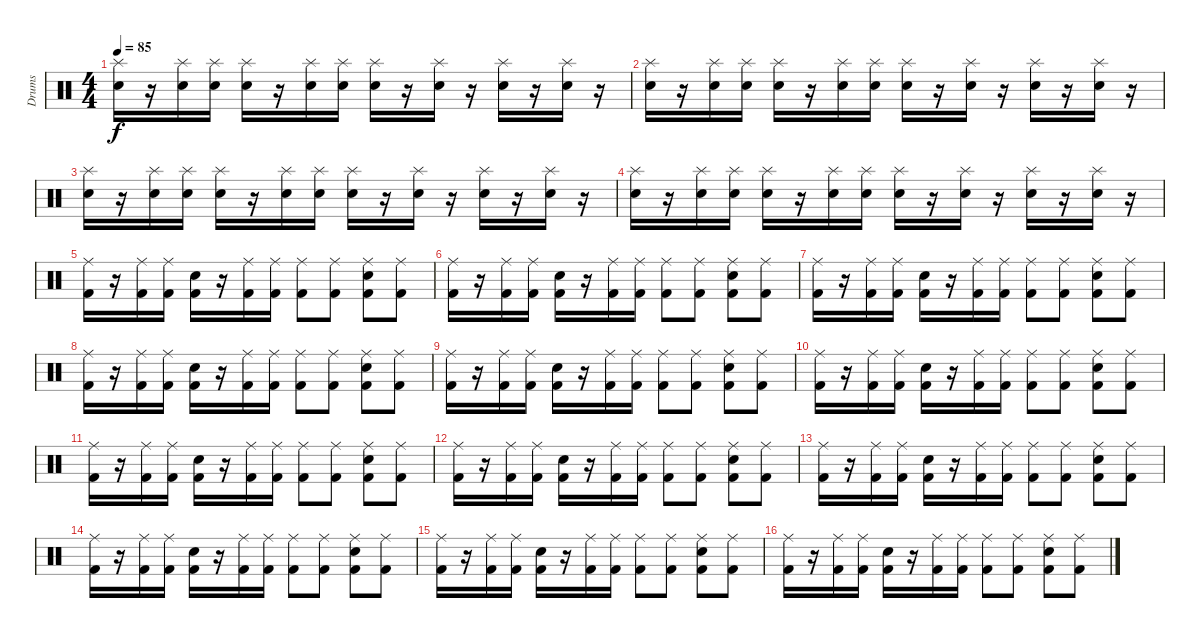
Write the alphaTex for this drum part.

\track ("Drums" "Drums") {instrument percussion}
\staff {score}
\articulation defaults
\ts (4 4)
\tempo 85
\clef neutral
\ks c
("Splash (hit)" "Snare (hit) 2").16{dy f volume 0} r.16{volume 11} ("Splash (hit)" "Snare (hit) 2").16 ("Splash (hit)" "Snare (hit) 2").16 ("Splash (hit)" "Snare (hit) 2").16 r.16 ("Splash (hit)" "Snare (hit) 2").16 ("Splash (hit)" "Snare (hit) 2").16 ("Splash (hit)" "Snare (hit) 2").16 r.16 ("Splash (hit)" "Snare (hit) 2").16 r.16 ("Splash (hit)" "Snare (hit) 2").16 r.16 ("Splash (hit)" "Snare (hit) 2").16 r.16 |
("Splash (hit)" "Snare (hit) 2").16 r.16 ("Splash (hit)" "Snare (hit) 2").16 ("Splash (hit)" "Snare (hit) 2").16 ("Splash (hit)" "Snare (hit) 2").16 r.16 ("Splash (hit)" "Snare (hit) 2").16 ("Splash (hit)" "Snare (hit) 2").16 ("Splash (hit)" "Snare (hit) 2").16 r.16 ("Splash (hit)" "Snare (hit) 2").16 r.16 ("Splash (hit)" "Snare (hit) 2").16 r.16 ("Splash (hit)" "Snare (hit) 2").16 r.16 |
("Splash (hit)" "Snare (hit) 2").16 r.16 ("Splash (hit)" "Snare (hit) 2").16 ("Splash (hit)" "Snare (hit) 2").16 ("Splash (hit)" "Snare (hit) 2").16 r.16 ("Splash (hit)" "Snare (hit) 2").16 ("Splash (hit)" "Snare (hit) 2").16 ("Splash (hit)" "Snare (hit) 2").16 r.16 ("Splash (hit)" "Snare (hit) 2").16 r.16 ("Splash (hit)" "Snare (hit) 2").16 r.16 ("Splash (hit)" "Snare (hit) 2").16 r.16 |
("Splash (hit)" "Snare (hit) 2").16 r.16 ("Splash (hit)" "Snare (hit) 2").16 ("Splash (hit)" "Snare (hit) 2").16 ("Splash (hit)" "Snare (hit) 2").16 r.16 ("Splash (hit)" "Snare (hit) 2").16 ("Splash (hit)" "Snare (hit) 2").16 ("Splash (hit)" "Snare (hit) 2").16 r.16 ("Splash (hit)" "Snare (hit) 2").16 r.16 ("Splash (hit)" "Snare (hit) 2").16 r.16 ("Splash (hit)" "Snare (hit) 2").16 r.16 |
("Ride (middle)" "Kick (hit) 2").16 r.16 ("Ride (middle)" "Kick (hit) 2").16 ("Ride (middle)" "Kick (hit) 2").16 ("Snare (hit) 2" "Kick (hit) 2").16 r.16 ("Ride (middle)" "Kick (hit) 2").16 ("Ride (middle)" "Kick (hit) 2").16 ("Ride (middle)" "Kick (hit) 2").8 ("Ride (middle)" "Kick (hit) 2").8 ("Ride (middle)" "Snare (hit) 2" "Kick (hit) 2").8 ("Ride (middle)" "Kick (hit) 2").8 |
("Ride (middle)" "Kick (hit) 2").16 r.16 ("Ride (middle)" "Kick (hit) 2").16 ("Ride (middle)" "Kick (hit) 2").16 ("Snare (hit) 2" "Kick (hit) 2").16 r.16 ("Ride (middle)" "Kick (hit) 2").16 ("Ride (middle)" "Kick (hit) 2").16 ("Ride (middle)" "Kick (hit) 2").8 ("Ride (middle)" "Kick (hit) 2").8 ("Ride (middle)" "Snare (hit) 2" "Kick (hit) 2").8 ("Ride (middle)" "Kick (hit) 2").8 |
("Ride (middle)" "Kick (hit) 2").16 r.16 ("Ride (middle)" "Kick (hit) 2").16 ("Ride (middle)" "Kick (hit) 2").16 ("Snare (hit) 2" "Kick (hit) 2").16 r.16 ("Ride (middle)" "Kick (hit) 2").16 ("Ride (middle)" "Kick (hit) 2").16 ("Ride (middle)" "Kick (hit) 2").8 ("Ride (middle)" "Kick (hit) 2").8 ("Ride (middle)" "Snare (hit) 2" "Kick (hit) 2").8 ("Ride (middle)" "Kick (hit) 2").8 |
("Ride (middle)" "Kick (hit) 2").16 r.16 ("Ride (middle)" "Kick (hit) 2").16 ("Ride (middle)" "Kick (hit) 2").16 ("Snare (hit) 2" "Kick (hit) 2").16 r.16 ("Ride (middle)" "Kick (hit) 2").16 ("Ride (middle)" "Kick (hit) 2").16 ("Ride (middle)" "Kick (hit) 2").8 ("Ride (middle)" "Kick (hit) 2").8 ("Ride (middle)" "Snare (hit) 2" "Kick (hit) 2").8 ("Ride (middle)" "Kick (hit) 2").8 |
("Ride (middle)" "Kick (hit) 2").16 r.16 ("Ride (middle)" "Kick (hit) 2").16 ("Ride (middle)" "Kick (hit) 2").16 ("Snare (hit) 2" "Kick (hit) 2").16 r.16 ("Ride (middle)" "Kick (hit) 2").16 ("Ride (middle)" "Kick (hit) 2").16 ("Ride (middle)" "Kick (hit) 2").8 ("Ride (middle)" "Kick (hit) 2").8 ("Ride (middle)" "Snare (hit) 2" "Kick (hit) 2").8 ("Ride (middle)" "Kick (hit) 2").8 |
("Ride (middle)" "Kick (hit) 2").16 r.16 ("Ride (middle)" "Kick (hit) 2").16 ("Ride (middle)" "Kick (hit) 2").16 ("Snare (hit) 2" "Kick (hit) 2").16 r.16 ("Ride (middle)" "Kick (hit) 2").16 ("Ride (middle)" "Kick (hit) 2").16 ("Ride (middle)" "Kick (hit) 2").8 ("Ride (middle)" "Kick (hit) 2").8 ("Ride (middle)" "Snare (hit) 2" "Kick (hit) 2").8 ("Ride (middle)" "Kick (hit) 2").8 |
("Ride (middle)" "Kick (hit) 2").16 r.16 ("Ride (middle)" "Kick (hit) 2").16 ("Ride (middle)" "Kick (hit) 2").16 ("Snare (hit) 2" "Kick (hit) 2").16 r.16 ("Ride (middle)" "Kick (hit) 2").16 ("Ride (middle)" "Kick (hit) 2").16 ("Ride (middle)" "Kick (hit) 2").8 ("Ride (middle)" "Kick (hit) 2").8 ("Ride (middle)" "Snare (hit) 2" "Kick (hit) 2").8 ("Ride (middle)" "Kick (hit) 2").8 |
("Ride (middle)" "Kick (hit) 2").16 r.16 ("Ride (middle)" "Kick (hit) 2").16 ("Ride (middle)" "Kick (hit) 2").16 ("Snare (hit) 2" "Kick (hit) 2").16 r.16 ("Ride (middle)" "Kick (hit) 2").16 ("Ride (middle)" "Kick (hit) 2").16 ("Ride (middle)" "Kick (hit) 2").8 ("Ride (middle)" "Kick (hit) 2").8 ("Ride (middle)" "Snare (hit) 2" "Kick (hit) 2").8 ("Ride (middle)" "Kick (hit) 2").8 |
("Ride (middle)" "Kick (hit) 2").16 r.16 ("Ride (middle)" "Kick (hit) 2").16 ("Ride (middle)" "Kick (hit) 2").16 ("Snare (hit) 2" "Kick (hit) 2").16 r.16 ("Ride (middle)" "Kick (hit) 2").16 ("Ride (middle)" "Kick (hit) 2").16 ("Ride (middle)" "Kick (hit) 2").8 ("Ride (middle)" "Kick (hit) 2").8 ("Ride (middle)" "Snare (hit) 2" "Kick (hit) 2").8 ("Ride (middle)" "Kick (hit) 2").8 |
("Ride (middle)" "Kick (hit) 2").16 r.16 ("Ride (middle)" "Kick (hit) 2").16 ("Ride (middle)" "Kick (hit) 2").16 ("Snare (hit) 2" "Kick (hit) 2").16 r.16 ("Ride (middle)" "Kick (hit) 2").16 ("Ride (middle)" "Kick (hit) 2").16 ("Ride (middle)" "Kick (hit) 2").8 ("Ride (middle)" "Kick (hit) 2").8 ("Ride (middle)" "Snare (hit) 2" "Kick (hit) 2").8 ("Ride (middle)" "Kick (hit) 2").8 |
("Ride (middle)" "Kick (hit) 2").16 r.16 ("Ride (middle)" "Kick (hit) 2").16 ("Ride (middle)" "Kick (hit) 2").16 ("Snare (hit) 2" "Kick (hit) 2").16 r.16 ("Ride (middle)" "Kick (hit) 2").16 ("Ride (middle)" "Kick (hit) 2").16 ("Ride (middle)" "Kick (hit) 2").8 ("Ride (middle)" "Kick (hit) 2").8 ("Ride (middle)" "Snare (hit) 2" "Kick (hit) 2").8 ("Ride (middle)" "Kick (hit) 2").8 |
("Ride (middle)" "Kick (hit) 2").16 r.16 ("Ride (middle)" "Kick (hit) 2").16 ("Ride (middle)" "Kick (hit) 2").16 ("Snare (hit) 2" "Kick (hit) 2").16 r.16 ("Ride (middle)" "Kick (hit) 2").16 ("Ride (middle)" "Kick (hit) 2").16 ("Ride (middle)" "Kick (hit) 2").8 ("Ride (middle)" "Kick (hit) 2").8 ("Ride (middle)" "Snare (hit) 2" "Kick (hit) 2").8 ("Ride (middle)" "Kick (hit) 2").8
